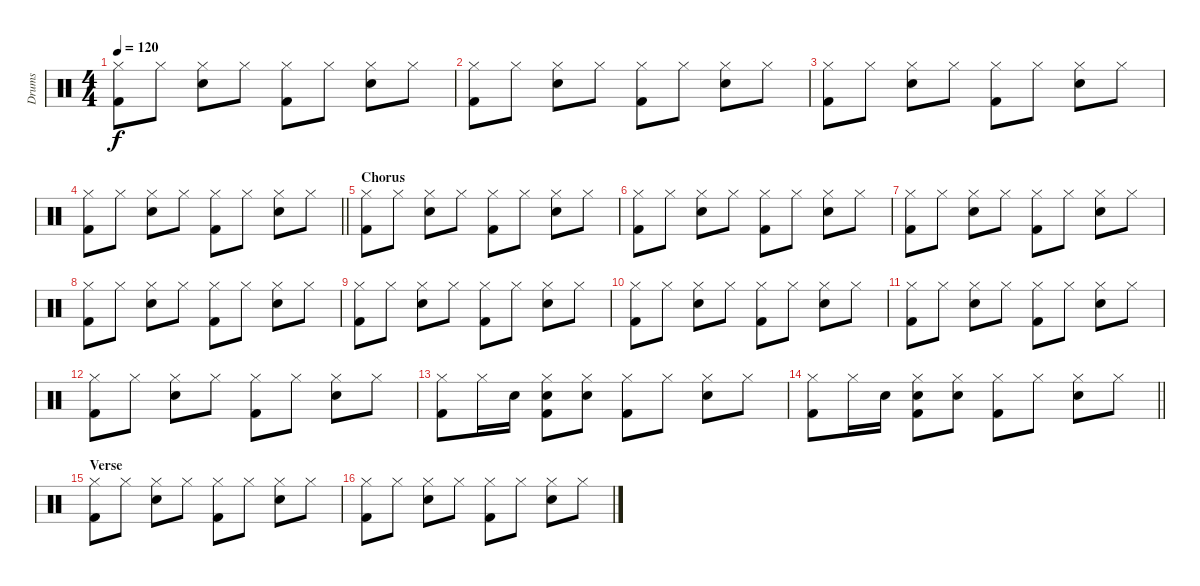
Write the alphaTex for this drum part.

\track ("Drums" "Drums") {instrument percussion}
\staff {score}
\articulation defaults
\ts (4 4)
\tempo 120
\clef neutral
\ks c
("Hi-Hat (closed)" "Kick (hit) 2").8{dy f} "Hi-Hat (closed)".8 ("Hi-Hat (closed)" "Snare (hit) 2").8 "Hi-Hat (closed)".8 ("Hi-Hat (closed)" "Kick (hit) 2").8 "Hi-Hat (closed)".8 ("Hi-Hat (closed)" "Snare (hit) 2").8 "Hi-Hat (closed)".8 |
("Hi-Hat (closed)" "Kick (hit) 2").8 "Hi-Hat (closed)".8 ("Hi-Hat (closed)" "Snare (hit) 2").8 "Hi-Hat (closed)".8 ("Hi-Hat (closed)" "Kick (hit) 2").8 "Hi-Hat (closed)".8 ("Hi-Hat (closed)" "Snare (hit) 2").8 "Hi-Hat (closed)".8 |
("Hi-Hat (closed)" "Kick (hit) 2").8 "Hi-Hat (closed)".8 ("Hi-Hat (closed)" "Snare (hit) 2").8 "Hi-Hat (closed)".8 ("Hi-Hat (closed)" "Kick (hit) 2").8 "Hi-Hat (closed)".8 ("Hi-Hat (closed)" "Snare (hit) 2").8 "Hi-Hat (closed)".8 |
\barLineRight lightlight
("Hi-Hat (closed)" "Kick (hit) 2").8 "Hi-Hat (closed)".8 ("Hi-Hat (closed)" "Snare (hit) 2").8 "Hi-Hat (closed)".8 ("Hi-Hat (closed)" "Kick (hit) 2").8 "Hi-Hat (closed)".8 ("Hi-Hat (closed)" "Snare (hit) 2").8 "Hi-Hat (closed)".8 |
\section ("" "Chorus")
("Hi-Hat (closed)" "Kick (hit) 2").8 "Hi-Hat (closed)".8 ("Hi-Hat (closed)" "Snare (hit) 2").8 "Hi-Hat (closed)".8 ("Hi-Hat (closed)" "Kick (hit) 2").8 "Hi-Hat (closed)".8 ("Hi-Hat (closed)" "Snare (hit) 2").8 "Hi-Hat (closed)".8 |
("Hi-Hat (closed)" "Kick (hit) 2").8 "Hi-Hat (closed)".8 ("Hi-Hat (closed)" "Snare (hit) 2").8 "Hi-Hat (closed)".8 ("Hi-Hat (closed)" "Kick (hit) 2").8 "Hi-Hat (closed)".8 ("Hi-Hat (closed)" "Snare (hit) 2").8 "Hi-Hat (closed)".8 |
("Hi-Hat (closed)" "Kick (hit) 2").8 "Hi-Hat (closed)".8 ("Hi-Hat (closed)" "Snare (hit) 2").8 "Hi-Hat (closed)".8 ("Hi-Hat (closed)" "Kick (hit) 2").8 "Hi-Hat (closed)".8 ("Hi-Hat (closed)" "Snare (hit) 2").8 "Hi-Hat (closed)".8 |
("Hi-Hat (closed)" "Kick (hit) 2").8 "Hi-Hat (closed)".8 ("Hi-Hat (closed)" "Snare (hit) 2").8 "Hi-Hat (closed)".8 ("Hi-Hat (closed)" "Kick (hit) 2").8 "Hi-Hat (closed)".8 ("Hi-Hat (closed)" "Snare (hit) 2").8 "Hi-Hat (closed)".8 |
("Hi-Hat (closed)" "Kick (hit) 2").8 "Hi-Hat (closed)".8 ("Hi-Hat (closed)" "Snare (hit) 2").8 "Hi-Hat (closed)".8 ("Hi-Hat (closed)" "Kick (hit) 2").8 "Hi-Hat (closed)".8 ("Hi-Hat (closed)" "Snare (hit) 2").8 "Hi-Hat (closed)".8 |
("Hi-Hat (closed)" "Kick (hit) 2").8 "Hi-Hat (closed)".8 ("Hi-Hat (closed)" "Snare (hit) 2").8 "Hi-Hat (closed)".8 ("Hi-Hat (closed)" "Kick (hit) 2").8 "Hi-Hat (closed)".8 ("Hi-Hat (closed)" "Snare (hit) 2").8 "Hi-Hat (closed)".8 |
("Hi-Hat (closed)" "Kick (hit) 2").8 "Hi-Hat (closed)".8 ("Hi-Hat (closed)" "Snare (hit) 2").8 "Hi-Hat (closed)".8 ("Hi-Hat (closed)" "Kick (hit) 2").8 "Hi-Hat (closed)".8 ("Hi-Hat (closed)" "Snare (hit) 2").8 "Hi-Hat (closed)".8 |
("Hi-Hat (closed)" "Kick (hit) 2").8 "Hi-Hat (closed)".8 ("Hi-Hat (closed)" "Snare (hit) 2").8 "Hi-Hat (closed)".8 ("Hi-Hat (closed)" "Kick (hit) 2").8 "Hi-Hat (closed)".8 ("Hi-Hat (closed)" "Snare (hit) 2").8 "Hi-Hat (closed)".8 |
("Hi-Hat (closed)" "Kick (hit) 2").8 "Hi-Hat (closed)".16 "Snare (hit) 2".16 ("Hi-Hat (closed)" "Snare (hit) 2" "Kick (hit) 2").8{volume 12} ("Hi-Hat (closed)" "Snare (hit) 2").8{volume 14} ("Hi-Hat (closed)" "Kick (hit) 2").8 "Hi-Hat (closed)".8 ("Hi-Hat (closed)" "Snare (hit) 2").8 "Hi-Hat (closed)".8 |
\barLineRight lightlight
("Hi-Hat (closed)" "Kick (hit) 2").8 "Hi-Hat (closed)".16 "Snare (hit) 2".16 ("Hi-Hat (closed)" "Snare (hit) 2" "Kick (hit) 2").8{volume 12} ("Hi-Hat (closed)" "Snare (hit) 2").8{volume 14} ("Hi-Hat (closed)" "Kick (hit) 2").8 "Hi-Hat (closed)".8 ("Hi-Hat (closed)" "Snare (hit) 2").8 "Hi-Hat (closed)".8 |
\section ("" "Verse")
("Hi-Hat (closed)" "Kick (hit) 2").8 "Hi-Hat (closed)".8 ("Hi-Hat (closed)" "Snare (hit) 2").8 "Hi-Hat (closed)".8 ("Hi-Hat (closed)" "Kick (hit) 2").8 "Hi-Hat (closed)".8 ("Hi-Hat (closed)" "Snare (hit) 2").8 "Hi-Hat (closed)".8 |
("Hi-Hat (closed)" "Kick (hit) 2").8 "Hi-Hat (closed)".8 ("Hi-Hat (closed)" "Snare (hit) 2").8 "Hi-Hat (closed)".8 ("Hi-Hat (closed)" "Kick (hit) 2").8 "Hi-Hat (closed)".8 ("Hi-Hat (closed)" "Snare (hit) 2").8 "Hi-Hat (closed)".8
